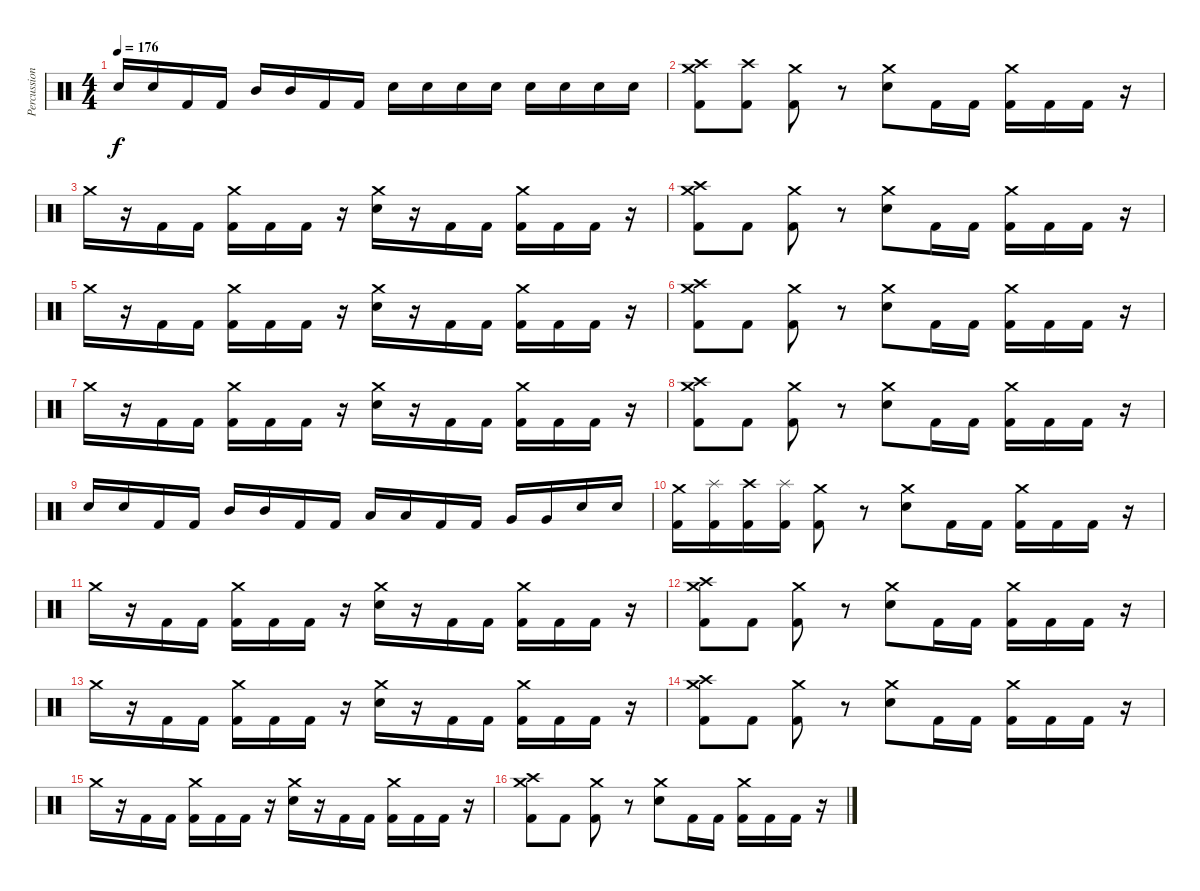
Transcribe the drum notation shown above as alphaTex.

\track ("Percussion" "Percussion") {instrument percussion}
\staff {score}
\articulation defaults
\ts (4 4)
\tempo 176
\clef neutral
\ks c "Snare (hit) 2".16{dy f} "Snare (hit) 2".16 "Kick (hit) 2".16 "Kick (hit) 2".16 "Mid Tom (hit)".16 "Mid Tom (hit)".16 "Kick (hit) 2".16 "Kick (hit) 2".16 "Snare (hit) 2".16 "Snare (hit) 2".16 "Snare (hit) 2".16 "Snare (hit) 2".16 "Snare (hit) 2".16 "Snare (hit) 2".16 "Snare (hit) 2".16 "Snare (hit) 2".16
|
("Crash high (hit)" "Crash medium (hit)" "Kick (hit) 2").8 ("Crash high (hit)" "Kick (hit) 2").8 ("Crash medium (hit)" "Kick (hit) 2").8 r.8 ("Crash medium (hit)" "Snare (hit) 2").8 "Kick (hit) 2".16 "Kick (hit) 2".16 ("Crash medium (hit)" "Kick (hit) 2").16 "Kick (hit) 2".16 "Kick (hit) 2".16 r.16 |
"Crash medium (hit)".16 r.16 "Kick (hit) 2".16 "Kick (hit) 2".16 ("Crash medium (hit)" "Kick (hit) 2").16 "Kick (hit) 2".16 "Kick (hit) 2".16 r.16 ("Crash medium (hit)" "Snare (hit) 2").16 r.16 "Kick (hit) 2".16 "Kick (hit) 2".16 ("Crash medium (hit)" "Kick (hit) 2").16 "Kick (hit) 2".16 "Kick (hit) 2".16 r.16 |
("Crash high (hit)" "Crash medium (hit)" "Kick (hit) 2").8 "Kick (hit) 2".8 ("Crash medium (hit)" "Kick (hit) 2").8 r.8 ("Crash medium (hit)" "Snare (hit) 2").8 "Kick (hit) 2".16 "Kick (hit) 2".16 ("Crash medium (hit)" "Kick (hit) 2").16 "Kick (hit) 2".16 "Kick (hit) 2".16 r.16 |
"Crash medium (hit)".16 r.16 "Kick (hit) 2".16 "Kick (hit) 2".16 ("Crash medium (hit)" "Kick (hit) 2").16 "Kick (hit) 2".16 "Kick (hit) 2".16 r.16 ("Crash medium (hit)" "Snare (hit) 2").16 r.16 "Kick (hit) 2".16 "Kick (hit) 2".16 ("Crash medium (hit)" "Kick (hit) 2").16 "Kick (hit) 2".16 "Kick (hit) 2".16 r.16 |
("Crash high (hit)" "Crash medium (hit)" "Kick (hit) 2").8 "Kick (hit) 2".8 ("Crash medium (hit)" "Kick (hit) 2").8 r.8 ("Crash medium (hit)" "Snare (hit) 2").8 "Kick (hit) 2".16 "Kick (hit) 2".16 ("Crash medium (hit)" "Kick (hit) 2").16 "Kick (hit) 2".16 "Kick (hit) 2".16 r.16 |
"Crash medium (hit)".16 r.16 "Kick (hit) 2".16 "Kick (hit) 2".16 ("Crash medium (hit)" "Kick (hit) 2").16 "Kick (hit) 2".16 "Kick (hit) 2".16 r.16 ("Crash medium (hit)" "Snare (hit) 2").16 r.16 "Kick (hit) 2".16 "Kick (hit) 2".16 ("Crash medium (hit)" "Kick (hit) 2").16 "Kick (hit) 2".16 "Kick (hit) 2".16 r.16 |
("Crash high (hit)" "Crash medium (hit)" "Kick (hit) 2").8 "Kick (hit) 2".8 ("Crash medium (hit)" "Kick (hit) 2").8 r.8 ("Crash medium (hit)" "Snare (hit) 2").8 "Kick (hit) 2".16 "Kick (hit) 2".16 ("Crash medium (hit)" "Kick (hit) 2").16 "Kick (hit) 2".16 "Kick (hit) 2".16 r.16 |
"Snare (hit) 2".16 "Snare (hit) 2".16 "Kick (hit) 2".16 "Kick (hit) 2".16 "Mid Tom (hit)".16 "Mid Tom (hit)".16 "Kick (hit) 2".16 "Kick (hit) 2".16 "Low Tom (hit)".16 "Low Tom (hit)".16 "Kick (hit) 2".16 "Kick (hit) 2".16 "Very Low Tom (hit)".16 "Very Low Tom (hit)".16 "Snare (hit) 2".16 "Snare (hit) 2".16 |
("Crash medium (hit)" "Kick (hit) 2").16 ("Splash (hit)" "Kick (hit) 2").16 ("Crash high (hit)" "Kick (hit) 2").16 ("Splash (hit)" "Kick (hit) 2").16 ("Crash medium (hit)" "Kick (hit) 2").8 r.8 ("Crash medium (hit)" "Snare (hit) 2").8 "Kick (hit) 2".16 "Kick (hit) 2".16 ("Crash medium (hit)" "Kick (hit) 2").16 "Kick (hit) 2".16 "Kick (hit) 2".16 r.16 |
"Crash medium (hit)".16 r.16 "Kick (hit) 2".16 "Kick (hit) 2".16 ("Crash medium (hit)" "Kick (hit) 2").16 "Kick (hit) 2".16 "Kick (hit) 2".16 r.16 ("Crash medium (hit)" "Snare (hit) 2").16 r.16 "Kick (hit) 2".16 "Kick (hit) 2".16 ("Crash medium (hit)" "Kick (hit) 2").16 "Kick (hit) 2".16 "Kick (hit) 2".16 r.16 |
("Crash high (hit)" "Crash medium (hit)" "Kick (hit) 2").8 "Kick (hit) 2".8 ("Crash medium (hit)" "Kick (hit) 2").8 r.8 ("Crash medium (hit)" "Snare (hit) 2").8 "Kick (hit) 2".16 "Kick (hit) 2".16 ("Crash medium (hit)" "Kick (hit) 2").16 "Kick (hit) 2".16 "Kick (hit) 2".16 r.16 |
"Crash medium (hit)".16 r.16 "Kick (hit) 2".16 "Kick (hit) 2".16 ("Crash medium (hit)" "Kick (hit) 2").16 "Kick (hit) 2".16 "Kick (hit) 2".16 r.16 ("Crash medium (hit)" "Snare (hit) 2").16 r.16 "Kick (hit) 2".16 "Kick (hit) 2".16 ("Crash medium (hit)" "Kick (hit) 2").16 "Kick (hit) 2".16 "Kick (hit) 2".16 r.16 |
("Crash high (hit)" "Crash medium (hit)" "Kick (hit) 2").8 "Kick (hit) 2".8 ("Crash medium (hit)" "Kick (hit) 2").8 r.8 ("Crash medium (hit)" "Snare (hit) 2").8 "Kick (hit) 2".16 "Kick (hit) 2".16 ("Crash medium (hit)" "Kick (hit) 2").16 "Kick (hit) 2".16 "Kick (hit) 2".16 r.16 |
"Crash medium (hit)".16 r.16 "Kick (hit) 2".16 "Kick (hit) 2".16 ("Crash medium (hit)" "Kick (hit) 2").16 "Kick (hit) 2".16 "Kick (hit) 2".16 r.16 ("Crash medium (hit)" "Snare (hit) 2").16 r.16 "Kick (hit) 2".16 "Kick (hit) 2".16 ("Crash medium (hit)" "Kick (hit) 2").16 "Kick (hit) 2".16 "Kick (hit) 2".16 r.16 |
("Crash high (hit)" "Crash medium (hit)" "Kick (hit) 2").8 "Kick (hit) 2".8 ("Crash medium (hit)" "Kick (hit) 2").8 r.8 ("Crash medium (hit)" "Snare (hit) 2").8 "Kick (hit) 2".16 "Kick (hit) 2".16 ("Crash medium (hit)" "Kick (hit) 2").16 "Kick (hit) 2".16 "Kick (hit) 2".16 r.16
